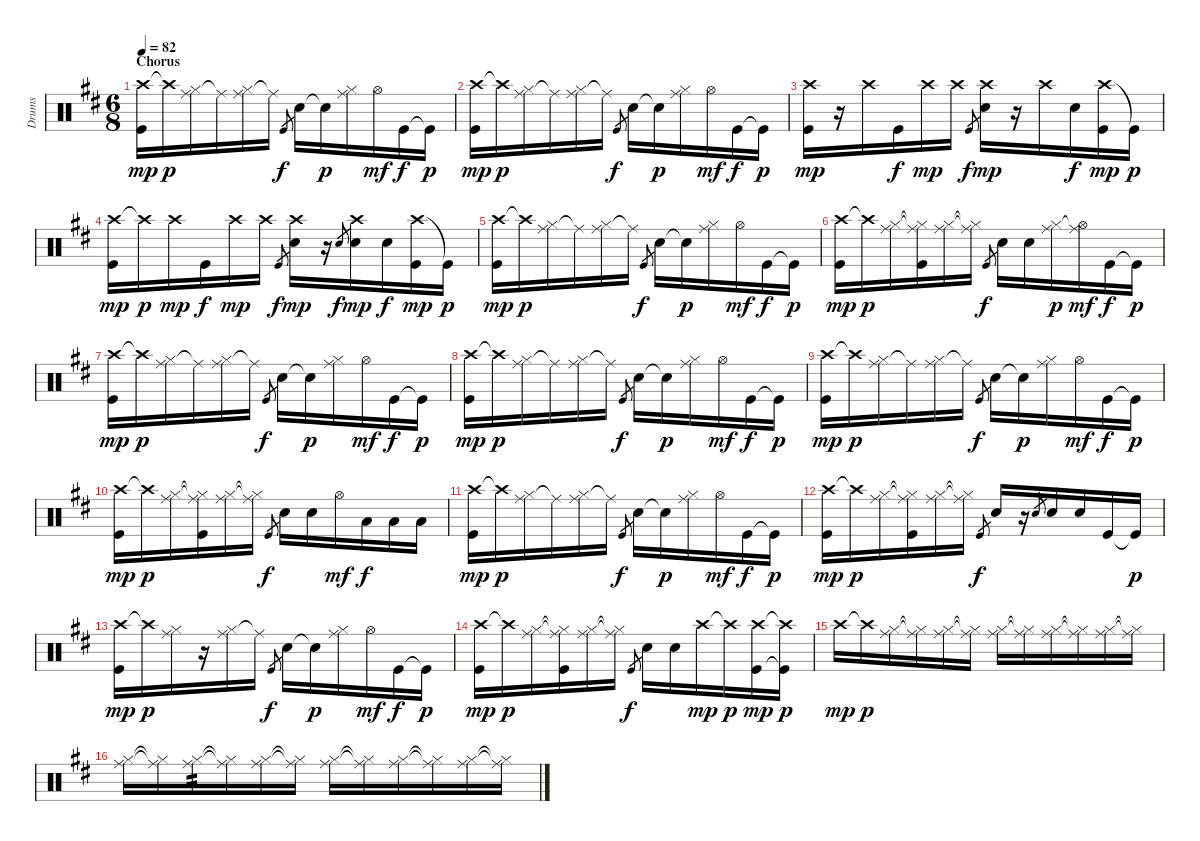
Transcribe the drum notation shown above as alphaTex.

\track ("Drums" "Drums") {instrument percussion}
\staff {score}
\articulation defaults
\ts (6 8)
\section ("" "Chorus")
\tempo 82
\clef neutral
\ks d
("Crash high (hit)" "Kick (hit)").16{dy mp} "Crash high (hit)"{t}.16{dy p} ("Ride (middle)" "Hi-Hat (closed)").16 "Ride (middle)"{t}.16 ("Ride (middle)" "Hi-Hat (closed)").16 "Ride (middle)"{t}.16 "Kick (hit)".8{gr dy f} "Electric Snare (hit)".16 "Electric Snare (hit)"{t}.16{dy p} ("Ride (middle)" "Hi-Hat (closed)").16 "Hi-Hat (open)".16{dy mf} "Kick (hit)".16{dy f} "Kick (hit)"{t}.16{dy p} |
("Crash high (hit)" "Kick (hit)").16{dy mp} "Crash high (hit)"{t}.16{dy p} ("Ride (middle)" "Hi-Hat (closed)").16 "Ride (middle)"{t}.16 ("Ride (middle)" "Hi-Hat (closed)").16 "Ride (middle)"{t}.16 "Kick (hit)".8{gr dy f} "Electric Snare (hit)".16 "Electric Snare (hit)"{t}.16{dy p} ("Ride (middle)" "Hi-Hat (closed)").16 "Hi-Hat (open)".16{dy mf} "Kick (hit)".16{dy f} "Kick (hit)"{t}.16{dy p} |
("Crash high (hit)" "Kick (hit)").16{dy mp} r.16 "Crash high (hit)".16 "Kick (hit)".16{dy f} "Crash high (hit)".16{dy mp} "Crash high (hit)".16 "Kick (hit)".8{gr dy f} ("Crash high (hit)" "Electric Snare (hit)").16{dy mp} r.16 "Crash high (hit)".16 "Electric Snare (hit)".16{dy f} ("Crash high (hit)" "Kick (hit)").16{dy mp} "Kick (hit)"{t}.16{dy p} |
("Crash high (hit)" "Kick (hit)").16{dy mp} "Crash high (hit)"{t}.16{dy p} "Crash high (hit)".16{dy mp} "Kick (hit)".16{dy f} "Crash high (hit)".16{dy mp} "Crash high (hit)".16 "Kick (hit)".8{gr dy f} ("Crash high (hit)" "Electric Snare (hit)").16{dy mp} r.16 "Electric Snare (hit)".8{gr dy f} ("Crash high (hit)" "Electric Snare (hit)").16{dy mp} "Electric Snare (hit)".16{dy f} ("Crash high (hit)" "Kick (hit)").16{dy mp} "Kick (hit)"{t}.16{dy p} |
("Crash high (hit)" "Kick (hit)").16{dy mp} "Crash high (hit)"{t}.16{dy p} ("Ride (middle)" "Hi-Hat (closed)").16 "Ride (middle)"{t}.16 ("Ride (middle)" "Hi-Hat (closed)").16 "Ride (middle)"{t}.16 "Kick (hit)".8{gr dy f} "Electric Snare (hit)".16 "Electric Snare (hit)"{t}.16{dy p} ("Ride (middle)" "Hi-Hat (closed)").16 "Hi-Hat (open)".16{dy mf} "Kick (hit)".16{dy f} "Kick (hit)"{t}.16{dy p} |
("Crash high (hit)" "Kick (hit)").16{dy mp} "Crash high (hit)"{t}.16{dy p} ("Ride (middle)" "Hi-Hat (closed)").16 ("Ride (middle)"{t} "Hi-Hat (closed)"{t} "Kick (hit)").16 ("Ride (middle)" "Hi-Hat (closed)").16 ("Ride (middle)"{t} "Hi-Hat (closed)"{t}).16 "Kick (hit)".8{gr dy f} "Electric Snare (hit)".16 "Electric Snare (hit)".16 ("Ride (middle)" "Hi-Hat (closed)").16{dy p} ("Ride (middle)"{t} "Hi-Hat (open)").16{dy mf} "Kick (hit)".16{dy f} "Kick (hit)"{t}.16{dy p} |
("Crash high (hit)" "Kick (hit)").16{dy mp} "Crash high (hit)"{t}.16{dy p} ("Ride (middle)" "Hi-Hat (closed)").16 "Ride (middle)"{t}.16 ("Ride (middle)" "Hi-Hat (closed)").16 "Ride (middle)"{t}.16 "Kick (hit)".8{gr dy f} "Electric Snare (hit)".16 "Electric Snare (hit)"{t}.16{dy p} ("Ride (middle)" "Hi-Hat (closed)").16 "Hi-Hat (open)".16{dy mf} "Kick (hit)".16{dy f} "Kick (hit)"{t}.16{dy p} |
("Crash high (hit)" "Kick (hit)").16{dy mp} "Crash high (hit)"{t}.16{dy p} ("Ride (middle)" "Hi-Hat (closed)").16 "Ride (middle)"{t}.16 ("Ride (middle)" "Hi-Hat (closed)").16 "Ride (middle)"{t}.16 "Kick (hit)".8{gr dy f} "Electric Snare (hit)".16 "Electric Snare (hit)"{t}.16{dy p} ("Ride (middle)" "Hi-Hat (closed)").16 "Hi-Hat (open)".16{dy mf} "Kick (hit)".16{dy f} "Kick (hit)"{t}.16{dy p} |
("Crash high (hit)" "Kick (hit)").16{dy mp} "Crash high (hit)"{t}.16{dy p} ("Ride (middle)" "Hi-Hat (closed)").16 "Ride (middle)"{t}.16 ("Ride (middle)" "Hi-Hat (closed)").16 "Ride (middle)"{t}.16 "Kick (hit)".8{gr dy f} "Electric Snare (hit)".16 "Electric Snare (hit)"{t}.16{dy p} ("Ride (middle)" "Hi-Hat (closed)").16 "Hi-Hat (open)".16{dy mf} "Kick (hit)".16{dy f} "Kick (hit)"{t}.16{dy p} |
("Crash high (hit)" "Kick (hit)").16{dy mp} "Crash high (hit)"{t}.16{dy p} ("Ride (middle)" "Hi-Hat (closed)").16 ("Ride (middle)"{t} "Hi-Hat (closed)"{t} "Kick (hit)").16 ("Ride (middle)" "Hi-Hat (closed)").16 ("Ride (middle)"{t} "Hi-Hat (closed)"{t}).16 "Kick (hit)".8{gr dy f} "Electric Snare (hit)".16 "Electric Snare (hit)".16 "Hi-Hat (open)".16{dy mf} "Low Floor Tom (hit)".16{dy f} "Low Floor Tom (hit)".16 "Low Floor Tom (hit)".16 |
("Crash high (hit)" "Kick (hit)").16{dy mp} "Crash high (hit)"{t}.16{dy p} ("Ride (middle)" "Hi-Hat (closed)").16 "Ride (middle)"{t}.16 ("Ride (middle)" "Hi-Hat (closed)").16 "Ride (middle)"{t}.16 "Kick (hit)".8{gr dy f} "Electric Snare (hit)".16 "Electric Snare (hit)"{t}.16{dy p} ("Ride (middle)" "Hi-Hat (closed)").16 "Hi-Hat (open)".16{dy mf} "Kick (hit)".16{dy f} "Kick (hit)"{t}.16{dy p} |
("Crash high (hit)" "Kick (hit)").16{dy mp} "Crash high (hit)"{t}.16{dy p} ("Ride (middle)" "Hi-Hat (closed)").16 ("Ride (middle)"{t} "Hi-Hat (closed)"{t} "Kick (hit)").16 ("Ride (middle)" "Hi-Hat (closed)").16 ("Ride (middle)"{t} "Hi-Hat (closed)"{t}).16 "Kick (hit)".8{gr dy f} "Electric Snare (hit)".16 r.16 "Electric Snare (hit)".8{gr} "Electric Snare (hit)".16 "Electric Snare (hit)".16 "Kick (hit)".16 "Kick (hit)"{t}.16{dy p} |
("Crash high (hit)" "Kick (hit)").16{dy mp} "Crash high (hit)"{t}.16{dy p} ("Ride (middle)" "Hi-Hat (closed)").16 r.16 ("Ride (middle)" "Hi-Hat (closed)").16 "Ride (middle)"{t}.16 "Kick (hit)".8{gr dy f} "Electric Snare (hit)".16 "Electric Snare (hit)"{t}.16{dy p} ("Ride (middle)" "Hi-Hat (closed)").16 "Hi-Hat (open)".16{dy mf} "Kick (hit)".16{dy f} "Kick (hit)"{t}.16{dy p} |
("Crash high (hit)" "Kick (hit)").16{dy mp} "Crash high (hit)"{t}.16{dy p} ("Ride (middle)" "Hi-Hat (closed)").16 ("Ride (middle)"{t} "Hi-Hat (closed)"{t} "Kick (hit)").16 ("Ride (middle)" "Hi-Hat (closed)").16 ("Ride (middle)"{t} "Hi-Hat (closed)"{t}).16 "Kick (hit)".8{gr dy f} "Electric Snare (hit)".16 "Electric Snare (hit)".16 "Crash high (hit)".16{dy mp} "Crash high (hit)"{t}.16{dy p} ("Crash high (hit)" "Kick (hit)").16{dy mp} ("Crash high (hit)"{t} "Kick (hit)"{t}).16{dy p} |
"Crash high (hit)".16{dy mp} "Crash high (hit)"{t}.16{dy p} ("Ride (middle)" "Hi-Hat (closed)").16 ("Ride (middle)"{t} "Hi-Hat (closed)"{t}).16 ("Ride (middle)" "Hi-Hat (closed)").16 ("Ride (middle)"{t} "Hi-Hat (closed)"{t}).16 ("Ride (middle)" "Hi-Hat (closed)").16 ("Ride (middle)"{t} "Hi-Hat (closed)"{t}).16 ("Ride (middle)" "Hi-Hat (closed)").16 ("Ride (middle)"{t} "Hi-Hat (closed)"{t}).16 ("Ride (middle)" "Hi-Hat (closed)").16 ("Ride (middle)"{t} "Hi-Hat (closed)"{t}).16 |
("Ride (middle)" "Hi-Hat (closed)").16 ("Ride (middle)"{t} "Hi-Hat (closed)"{t}).16 ("Ride (middle)" "Hi-Hat (closed)").16{tp 2} ("Ride (middle)"{t} "Hi-Hat (closed)"{t}).16 ("Ride (middle)" "Hi-Hat (closed)").16 ("Ride (middle)"{t} "Hi-Hat (closed)"{t}).16 ("Ride (middle)" "Hi-Hat (closed)").16 ("Ride (middle)"{t} "Hi-Hat (closed)"{t}).16 ("Ride (middle)" "Hi-Hat (closed)").16 ("Ride (middle)"{t} "Hi-Hat (closed)"{t}).16 ("Ride (middle)" "Hi-Hat (closed)").16 ("Ride (middle)"{t} "Hi-Hat (closed)"{t}).16
